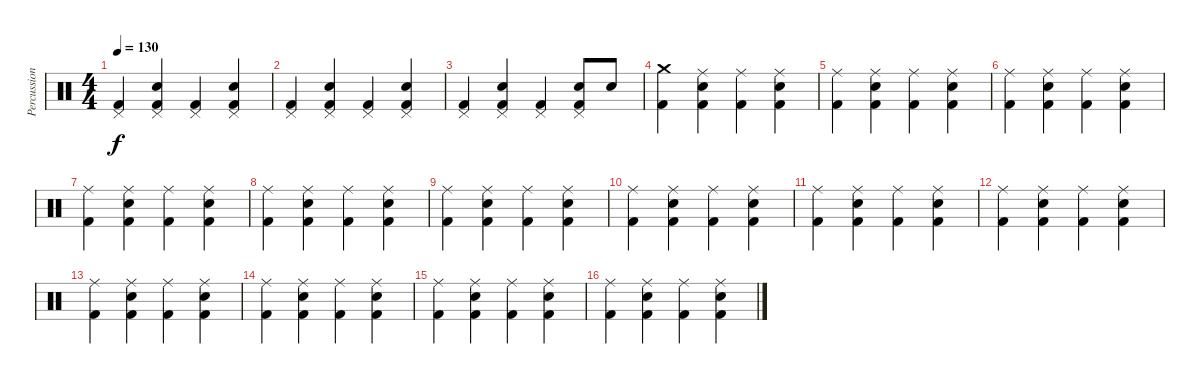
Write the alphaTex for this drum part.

\track ("Percussions" "Percussion") {instrument percussion}
\staff {score}
\articulation defaults
\ts (4 4)
\tempo 130
\clef neutral
\ks c
("Pedal Hi-Hat (hit)" "Kick (hit) 2").4{dy f} ("Pedal Hi-Hat (hit)" "Snare (hit) 2" "Kick (hit) 2").4 ("Pedal Hi-Hat (hit)" "Kick (hit) 2").4 ("Pedal Hi-Hat (hit)" "Snare (hit) 2" "Kick (hit) 2").4 |
("Pedal Hi-Hat (hit)" "Kick (hit) 2").4 ("Pedal Hi-Hat (hit)" "Snare (hit) 2" "Kick (hit) 2").4 ("Pedal Hi-Hat (hit)" "Kick (hit) 2").4 ("Pedal Hi-Hat (hit)" "Snare (hit) 2" "Kick (hit) 2").4 |
("Pedal Hi-Hat (hit)" "Kick (hit) 2").4 ("Pedal Hi-Hat (hit)" "Snare (hit) 2" "Kick (hit) 2").4 ("Pedal Hi-Hat (hit)" "Kick (hit) 2").4 ("Pedal Hi-Hat (hit)" "Snare (hit) 2" "Kick (hit) 2").8 "Snare (hit) 2".8 |
("Crash medium (hit)" "Kick (hit) 2").4 ("Ride (middle)" "Snare (hit) 2" "Kick (hit) 2").4 ("Ride (middle)" "Kick (hit) 2").4 ("Ride (middle)" "Snare (hit) 2" "Kick (hit) 2").4 |
("Ride (middle)" "Kick (hit) 2").4 ("Ride (middle)" "Snare (hit) 2" "Kick (hit) 2").4 ("Ride (middle)" "Kick (hit) 2").4 ("Ride (middle)" "Snare (hit) 2" "Kick (hit) 2").4 |
("Ride (middle)" "Kick (hit) 2").4 ("Ride (middle)" "Snare (hit) 2" "Kick (hit) 2").4 ("Ride (middle)" "Kick (hit) 2").4 ("Ride (middle)" "Snare (hit) 2" "Kick (hit) 2").4 |
("Ride (middle)" "Kick (hit) 2").4 ("Ride (middle)" "Snare (hit) 2" "Kick (hit) 2").4 ("Ride (middle)" "Kick (hit) 2").4 ("Ride (middle)" "Snare (hit) 2" "Kick (hit) 2").4 |
("Ride (middle)" "Kick (hit) 2").4 ("Ride (middle)" "Snare (hit) 2" "Kick (hit) 2").4 ("Ride (middle)" "Kick (hit) 2").4 ("Ride (middle)" "Snare (hit) 2" "Kick (hit) 2").4 |
("Ride (middle)" "Kick (hit) 2").4 ("Ride (middle)" "Snare (hit) 2" "Kick (hit) 2").4 ("Ride (middle)" "Kick (hit) 2").4 ("Ride (middle)" "Snare (hit) 2" "Kick (hit) 2").4 |
("Ride (middle)" "Kick (hit) 2").4 ("Ride (middle)" "Snare (hit) 2" "Kick (hit) 2").4 ("Ride (middle)" "Kick (hit) 2").4 ("Ride (middle)" "Snare (hit) 2" "Kick (hit) 2").4 |
("Ride (middle)" "Kick (hit) 2").4 ("Ride (middle)" "Snare (hit) 2" "Kick (hit) 2").4 ("Ride (middle)" "Kick (hit) 2").4 ("Ride (middle)" "Snare (hit) 2" "Kick (hit) 2").4 |
("Ride (middle)" "Kick (hit) 2").4 ("Ride (middle)" "Snare (hit) 2" "Kick (hit) 2").4 ("Ride (middle)" "Kick (hit) 2").4 ("Ride (middle)" "Snare (hit) 2" "Kick (hit) 2").4 |
("Ride (middle)" "Kick (hit) 2").4 ("Ride (middle)" "Snare (hit) 2" "Kick (hit) 2").4 ("Ride (middle)" "Kick (hit) 2").4 ("Ride (middle)" "Snare (hit) 2" "Kick (hit) 2").4 |
("Ride (middle)" "Kick (hit) 2").4 ("Ride (middle)" "Snare (hit) 2" "Kick (hit) 2").4 ("Ride (middle)" "Kick (hit) 2").4 ("Ride (middle)" "Snare (hit) 2" "Kick (hit) 2").4 |
("Ride (middle)" "Kick (hit) 2").4 ("Ride (middle)" "Snare (hit) 2" "Kick (hit) 2").4 ("Ride (middle)" "Kick (hit) 2").4 ("Ride (middle)" "Snare (hit) 2" "Kick (hit) 2").4 |
("Ride (middle)" "Kick (hit) 2").4 ("Ride (middle)" "Snare (hit) 2" "Kick (hit) 2").4 ("Ride (middle)" "Kick (hit) 2").4 ("Ride (middle)" "Snare (hit) 2" "Kick (hit) 2").4
